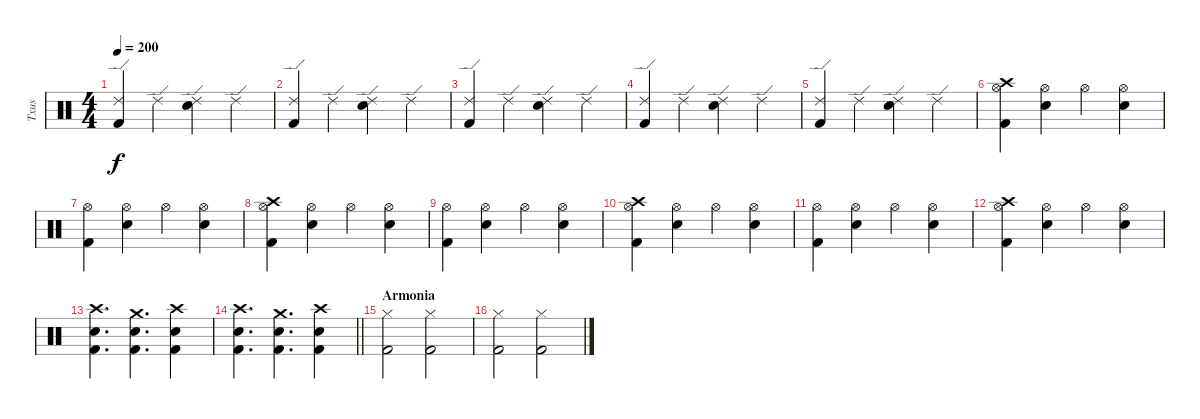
\track ("Txus" "Txus") {instrument percussion}
\staff
\articulation defaults
\ts (4 4)
\tempo 200
\clef neutral
\ks c
("Ride (edge) 2" "Kick (hit) 2").4{dy f} "Ride (edge) 2".4 ("Ride (edge) 2" "Electric Snare (hit)").4 "Ride (edge) 2".4 |
("Ride (edge) 2" "Kick (hit) 2").4 "Ride (edge) 2".4 ("Ride (edge) 2" "Electric Snare (hit)").4 "Ride (edge) 2".4 |
("Ride (edge) 2" "Kick (hit) 2").4 "Ride (edge) 2".4 ("Ride (edge) 2" "Electric Snare (hit)").4 "Ride (edge) 2".4 |
("Ride (edge) 2" "Kick (hit) 2").4 "Ride (edge) 2".4 ("Ride (edge) 2" "Electric Snare (hit)").4 "Ride (edge) 2".4 |
("Ride (edge) 2" "Kick (hit) 2").4 "Ride (edge) 2".4 ("Ride (edge) 2" "Electric Snare (hit)").4 "Ride (edge) 2".4 |
("Kick (hit) 2" "Crash high (hit)" "Hi-Hat (open)").4 ("Electric Snare (hit)" "Hi-Hat (open)").4 "Hi-Hat (open)".4 ("Electric Snare (hit)" "Hi-Hat (open)").4 |
("Kick (hit) 2" "Hi-Hat (open)").4 ("Electric Snare (hit)" "Hi-Hat (open)").4 "Hi-Hat (open)".4 ("Electric Snare (hit)" "Hi-Hat (open)").4 |
("Kick (hit) 2" "Crash high (hit)" "Hi-Hat (open)").4 ("Electric Snare (hit)" "Hi-Hat (open)").4 "Hi-Hat (open)".4 ("Electric Snare (hit)" "Hi-Hat (open)").4 |
("Kick (hit) 2" "Hi-Hat (open)").4 ("Electric Snare (hit)" "Hi-Hat (open)").4 "Hi-Hat (open)".4 ("Electric Snare (hit)" "Hi-Hat (open)").4 |
("Kick (hit) 2" "Crash high (hit)" "Hi-Hat (open)").4 ("Electric Snare (hit)" "Hi-Hat (open)").4 "Hi-Hat (open)".4 ("Electric Snare (hit)" "Hi-Hat (open)").4 |
("Kick (hit) 2" "Hi-Hat (open)").4 ("Electric Snare (hit)" "Hi-Hat (open)").4 "Hi-Hat (open)".4 ("Electric Snare (hit)" "Hi-Hat (open)").4 |
("Kick (hit) 2" "Crash high (hit)" "Hi-Hat (open)").4 ("Electric Snare (hit)" "Hi-Hat (open)").4 "Hi-Hat (open)".4 ("Electric Snare (hit)" "Hi-Hat (open)").4 |
("Electric Snare (hit)" "Kick (hit) 2" "Crash high (hit)").4{d} ("Electric Snare (hit)" "Kick (hit) 2" "Crash medium (hit)").4{d} ("Electric Snare (hit)" "Kick (hit) 2" "Crash high (hit)").4 |
\barLineRight lightlight
("Electric Snare (hit)" "Kick (hit) 2" "Crash high (hit)").4{d} ("Electric Snare (hit)" "Kick (hit) 2" "Crash medium (hit)").4{d} ("Electric Snare (hit)" "Kick (hit) 2" "Crash high (hit)").4 |
\section ("" "Armonia")
("Kick (hit) 2" "Hi-Hat (closed)").2 ("Kick (hit) 2" "Hi-Hat (closed)").2 |
("Kick (hit) 2" "Hi-Hat (closed)").2 ("Kick (hit) 2" "Hi-Hat (closed)").2
